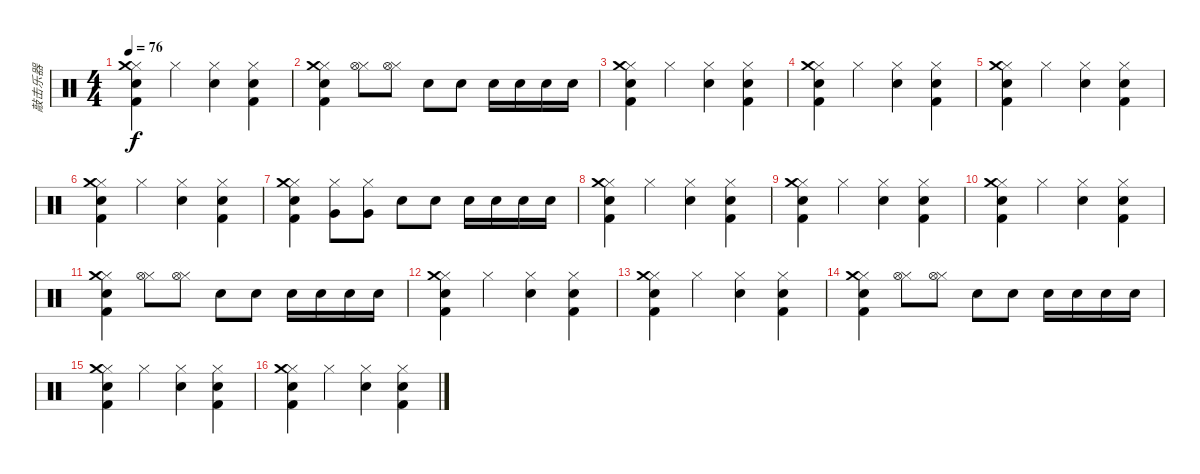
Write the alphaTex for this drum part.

\track ("敲击乐器" "敲击乐器") {instrument percussion}
\staff {score}
\articulation defaults
\ts (4 4)
\tempo 76
\clef neutral
\ks c
("Hi-Hat (closed)" "Snare (hit) 2" "Kick (hit) 2" "Crash medium (hit)").4{dy f} "Hi-Hat (closed)".4 ("Hi-Hat (closed)" "Hand Clap (hit)").4 ("Hi-Hat (closed)" "Snare (hit) 2" "Kick (hit) 2").4 |
("Hi-Hat (closed)" "Snare (hit) 2" "Kick (hit) 2" "Crash medium (hit)").4 ("Hi-Hat (closed)" "Hi-Hat (open)").8 ("Hi-Hat (closed)" "Hi-Hat (open)").8 "Electric Snare (hit)".8 "Electric Snare (hit)".8 "Snare (hit) 2".16 "Snare (hit) 2".16 "Snare (hit) 2".16 "Snare (hit) 2".16 |
("Hi-Hat (closed)" "Snare (hit) 2" "Kick (hit) 2" "Crash medium (hit)").4 "Hi-Hat (closed)".4 ("Hi-Hat (closed)" "Hand Clap (hit)").4 ("Hi-Hat (closed)" "Snare (hit) 2" "Kick (hit) 2").4 |
("Hi-Hat (closed)" "Snare (hit) 2" "Kick (hit) 2" "Crash medium (hit)").4 "Hi-Hat (closed)".4 ("Hi-Hat (closed)" "Hand Clap (hit)").4 ("Hi-Hat (closed)" "Snare (hit) 2" "Kick (hit) 2").4 |
("Hi-Hat (closed)" "Snare (hit) 2" "Kick (hit) 2" "Crash medium (hit)").4 "Hi-Hat (closed)".4 ("Hi-Hat (closed)" "Hand Clap (hit)").4 ("Hi-Hat (closed)" "Snare (hit) 2" "Kick (hit) 2").4 |
("Hi-Hat (closed)" "Snare (hit) 2" "Kick (hit) 2" "Crash medium (hit)").4 "Hi-Hat (closed)".4 ("Hi-Hat (closed)" "Hand Clap (hit)").4 ("Hi-Hat (closed)" "Snare (hit) 2" "Kick (hit) 2").4 |
("Hi-Hat (closed)" "Snare (hit) 2" "Kick (hit) 2" "Crash medium (hit)").4 ("Hi-Hat (closed)" "Very Low Tom (hit)").8 ("Hi-Hat (closed)" "Very Low Tom (hit)").8 "Snare (hit) 2".8 "Snare (hit) 2".8 "Electric Snare (hit)".16 "Electric Snare (hit)".16 "Electric Snare (hit)".16 "Electric Snare (hit)".16 |
("Hi-Hat (closed)" "Snare (hit) 2" "Kick (hit) 2" "Crash medium (hit)").4 "Hi-Hat (closed)".4 ("Hi-Hat (closed)" "Hand Clap (hit)").4 ("Hi-Hat (closed)" "Snare (hit) 2" "Kick (hit) 2").4 |
("Hi-Hat (closed)" "Snare (hit) 2" "Kick (hit) 2" "Crash medium (hit)").4 "Hi-Hat (closed)".4 ("Hi-Hat (closed)" "Hand Clap (hit)").4 ("Hi-Hat (closed)" "Snare (hit) 2" "Kick (hit) 2").4 |
("Hi-Hat (closed)" "Snare (hit) 2" "Kick (hit) 2" "Crash medium (hit)").4 "Hi-Hat (closed)".4 ("Hi-Hat (closed)" "Hand Clap (hit)").4 ("Hi-Hat (closed)" "Snare (hit) 2" "Kick (hit) 2").4 |
("Hi-Hat (closed)" "Snare (hit) 2" "Kick (hit) 2" "Crash medium (hit)").4 ("Hi-Hat (closed)" "Hi-Hat (open)").8 ("Hi-Hat (closed)" "Hi-Hat (open)").8 "Electric Snare (hit)".8 "Electric Snare (hit)".8 "Snare (hit) 2".16 "Snare (hit) 2".16 "Snare (hit) 2".16 "Snare (hit) 2".16 |
("Hi-Hat (closed)" "Snare (hit) 2" "Kick (hit) 2" "Crash medium (hit)").4 "Hi-Hat (closed)".4 ("Hi-Hat (closed)" "Hand Clap (hit)").4 ("Hi-Hat (closed)" "Snare (hit) 2" "Kick (hit) 2").4 |
("Hi-Hat (closed)" "Snare (hit) 2" "Kick (hit) 2" "Crash medium (hit)").4 "Hi-Hat (closed)".4 ("Hi-Hat (closed)" "Hand Clap (hit)").4 ("Hi-Hat (closed)" "Snare (hit) 2" "Kick (hit) 2").4 |
("Hi-Hat (closed)" "Snare (hit) 2" "Kick (hit) 2" "Crash medium (hit)").4 ("Hi-Hat (closed)" "Hi-Hat (open)").8 ("Hi-Hat (closed)" "Hi-Hat (open)").8 "Electric Snare (hit)".8 "Electric Snare (hit)".8 "Snare (hit) 2".16 "Snare (hit) 2".16 "Snare (hit) 2".16 "Snare (hit) 2".16 |
("Hi-Hat (closed)" "Snare (hit) 2" "Kick (hit) 2" "Crash medium (hit)").4 "Hi-Hat (closed)".4 ("Hi-Hat (closed)" "Hand Clap (hit)").4 ("Hi-Hat (closed)" "Snare (hit) 2" "Kick (hit) 2").4 |
("Hi-Hat (closed)" "Snare (hit) 2" "Kick (hit) 2" "Crash medium (hit)").4 "Hi-Hat (closed)".4 ("Hi-Hat (closed)" "Hand Clap (hit)").4 ("Hi-Hat (closed)" "Snare (hit) 2" "Kick (hit) 2").4
